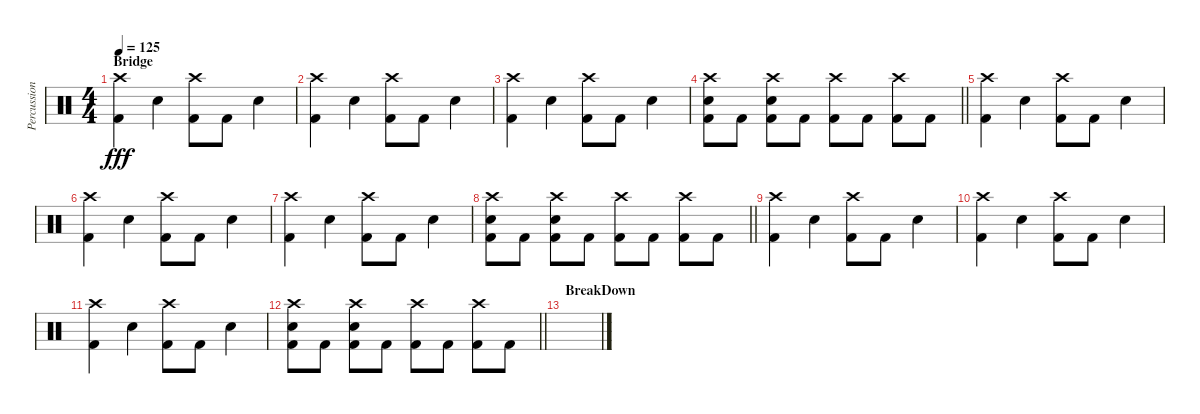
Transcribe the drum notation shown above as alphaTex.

\track ("Percussion" "Percussion") {instrument percussion}
\staff {score}
\articulation defaults
\ts (4 4)
\section ("" "Bridge")
\tempo 125
\clef neutral
\ks c
("Crash high (hit)" "Kick (hit) 2").4{dy fff} "Electric Snare (hit)".4 ("Crash high (hit)" "Kick (hit) 2").8 "Kick (hit) 2".8 "Electric Snare (hit)".4 |
("Crash high (hit)" "Kick (hit) 2").4 "Electric Snare (hit)".4 ("Crash high (hit)" "Kick (hit) 2").8 "Kick (hit) 2".8 "Electric Snare (hit)".4 |
("Crash high (hit)" "Kick (hit) 2").4 "Electric Snare (hit)".4 ("Crash high (hit)" "Kick (hit) 2").8 "Kick (hit) 2".8 "Electric Snare (hit)".4 |
\barLineRight lightlight
("Crash high (hit)" "Electric Snare (hit)" "Kick (hit) 2").8 "Kick (hit) 2".8 ("Crash high (hit)" "Electric Snare (hit)" "Kick (hit) 2").8 "Kick (hit) 2".8 ("Crash high (hit)" "Kick (hit) 2").8 "Kick (hit) 2".8 ("Crash high (hit)" "Kick (hit) 2").8 "Kick (hit) 2".8 |
("Crash high (hit)" "Kick (hit) 2").4 "Electric Snare (hit)".4 ("Crash high (hit)" "Kick (hit) 2").8 "Kick (hit) 2".8 "Electric Snare (hit)".4 |
("Crash high (hit)" "Kick (hit) 2").4 "Electric Snare (hit)".4 ("Crash high (hit)" "Kick (hit) 2").8 "Kick (hit) 2".8 "Electric Snare (hit)".4 |
("Crash high (hit)" "Kick (hit) 2").4 "Electric Snare (hit)".4 ("Crash high (hit)" "Kick (hit) 2").8 "Kick (hit) 2".8 "Electric Snare (hit)".4 |
\barLineRight lightlight
("Crash high (hit)" "Electric Snare (hit)" "Kick (hit) 2").8 "Kick (hit) 2".8 ("Crash high (hit)" "Electric Snare (hit)" "Kick (hit) 2").8 "Kick (hit) 2".8 ("Crash high (hit)" "Kick (hit) 2").8 "Kick (hit) 2".8 ("Crash high (hit)" "Kick (hit) 2").8 "Kick (hit) 2".8 |
("Crash high (hit)" "Kick (hit) 2").4 "Electric Snare (hit)".4 ("Crash high (hit)" "Kick (hit) 2").8 "Kick (hit) 2".8 "Electric Snare (hit)".4 |
("Crash high (hit)" "Kick (hit) 2").4 "Electric Snare (hit)".4 ("Crash high (hit)" "Kick (hit) 2").8 "Kick (hit) 2".8 "Electric Snare (hit)".4 |
("Crash high (hit)" "Kick (hit) 2").4 "Electric Snare (hit)".4 ("Crash high (hit)" "Kick (hit) 2").8 "Kick (hit) 2".8 "Electric Snare (hit)".4 |
\barLineRight lightlight
("Crash high (hit)" "Electric Snare (hit)" "Kick (hit) 2").8 "Kick (hit) 2".8 ("Crash high (hit)" "Electric Snare (hit)" "Kick (hit) 2").8 "Kick (hit) 2".8 ("Crash high (hit)" "Kick (hit) 2").8 "Kick (hit) 2".8 ("Crash high (hit)" "Kick (hit) 2").8 "Kick (hit) 2".8 |
\section ("" "BreakDown")
